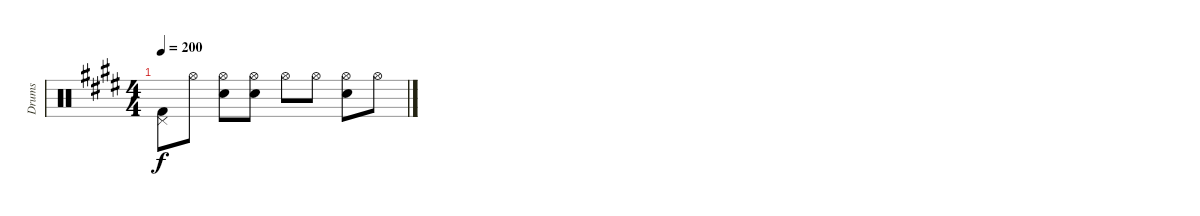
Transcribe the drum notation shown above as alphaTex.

\track ("Drums" "Drums") {instrument percussion}
\staff {score}
\articulation defaults
\ts (4 4)
\tempo 200
\clef neutral
\ks e
("Pedal Hi-Hat (hit)" "Kick (hit) 2").8{dy f} "Hi-Hat (open)".8 ("Hi-Hat (open)" "Snare (hit) 2").8 ("Hi-Hat (open)" "Snare (hit) 2").8 "Hi-Hat (open)".8 "Hi-Hat (open)".8 ("Hi-Hat (open)" "Snare (hit) 2").8 "Hi-Hat (open)".8
